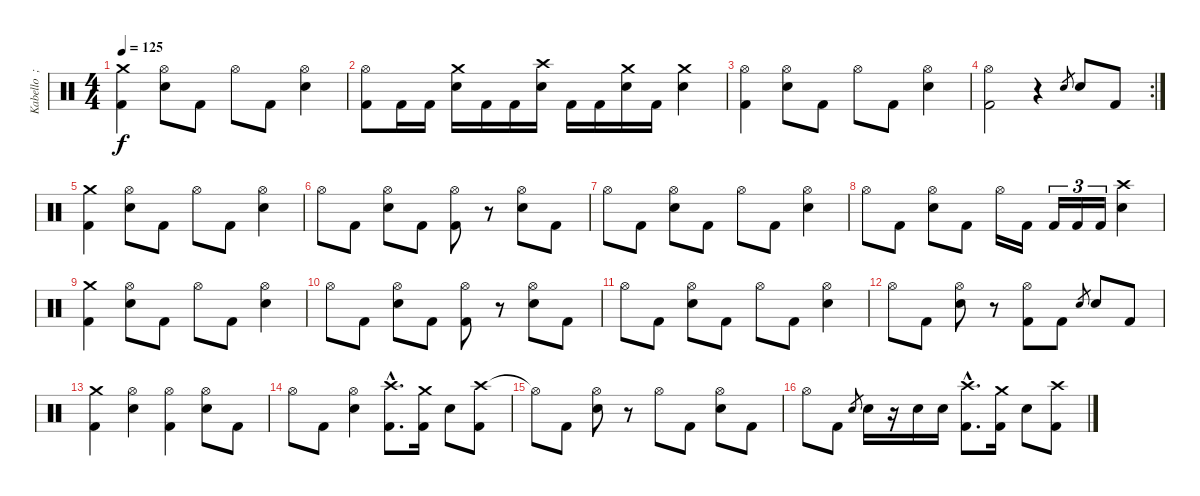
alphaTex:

\track ("Kabello  ;-)" "Kabello  ;") {instrument percussion}
\staff {score}
\articulation defaults
\ts (4 4)
\tempo 125
\clef neutral
\ks c
("Crash medium (hit)" "Kick (hit) 2").4{dy f} ("Hi-Hat (open)" "Electric Snare (hit)").8 "Kick (hit) 2".8 "Hi-Hat (open)".8 "Kick (hit) 2".8 ("Hi-Hat (open)" "Electric Snare (hit)").4 |
("Hi-Hat (open)" "Kick (hit) 2").8 "Kick (hit) 2".16 "Kick (hit) 2".16 ("Crash medium (hit)" "Electric Snare (hit)").16 "Kick (hit) 2".16 "Kick (hit) 2".16 ("Crash high (hit)" "Electric Snare (hit)").16 "Kick (hit) 2".16 "Kick (hit) 2".16 ("Crash medium (hit)" "Electric Snare (hit)").16 "Kick (hit) 2".16 ("Crash medium (hit)" "Electric Snare (hit)").4 |
("Hi-Hat (open)" "Kick (hit) 2").4 ("Hi-Hat (open)" "Electric Snare (hit)").8 "Kick (hit) 2".8 "Hi-Hat (open)".8 "Kick (hit) 2".8 ("Hi-Hat (open)" "Electric Snare (hit)").4 |
\rc 2
("Hi-Hat (open)" "Kick (hit) 2").2 r.4 "Electric Snare (hit)".8{gr} "Electric Snare (hit)".8 "Kick (hit) 2".8 |
("Crash medium (hit)" "Kick (hit) 2").4 ("Hi-Hat (open)" "Electric Snare (hit)").8 "Kick (hit) 2".8 "Hi-Hat (open)".8 "Kick (hit) 2".8 ("Hi-Hat (open)" "Electric Snare (hit)").4 |
"Hi-Hat (open)".8 "Kick (hit) 2".8 ("Hi-Hat (open)" "Electric Snare (hit)").8 "Kick (hit) 2".8 ("Hi-Hat (open)" "Kick (hit) 2").8 r.8 ("Hi-Hat (open)" "Electric Snare (hit)").8 "Kick (hit) 2".8 |
"Hi-Hat (open)".8 "Kick (hit) 2".8 ("Hi-Hat (open)" "Electric Snare (hit)").8 "Kick (hit) 2".8 "Hi-Hat (open)".8 "Kick (hit) 2".8 ("Hi-Hat (open)" "Electric Snare (hit)").4 |
"Hi-Hat (open)".8 "Kick (hit) 2".8 ("Hi-Hat (open)" "Electric Snare (hit)").8 "Kick (hit) 2".8 "Hi-Hat (open)".16 "Kick (hit) 2".16 "Kick (hit) 2".16{tu (3 2)} "Kick (hit) 2".16{tu (3 2)} "Kick (hit) 2".16{tu (3 2)} ("Crash high (hit)" "Electric Snare (hit)").4 |
("Crash medium (hit)" "Kick (hit) 2").4 ("Hi-Hat (open)" "Electric Snare (hit)").8 "Kick (hit) 2".8 "Hi-Hat (open)".8 "Kick (hit) 2".8 ("Hi-Hat (open)" "Electric Snare (hit)").4 |
"Hi-Hat (open)".8 "Kick (hit) 2".8 ("Hi-Hat (open)" "Electric Snare (hit)").8 "Kick (hit) 2".8 ("Hi-Hat (open)" "Kick (hit) 2").8 r.8 ("Hi-Hat (open)" "Electric Snare (hit)").8 "Kick (hit) 2".8 |
"Hi-Hat (open)".8 "Kick (hit) 2".8 ("Hi-Hat (open)" "Electric Snare (hit)").8 "Kick (hit) 2".8 "Hi-Hat (open)".8 "Kick (hit) 2".8 ("Hi-Hat (open)" "Electric Snare (hit)").4 |
"Hi-Hat (open)".8 "Kick (hit) 2".8 ("Hi-Hat (open)" "Electric Snare (hit)").8 r.8 ("Hi-Hat (open)" "Kick (hit) 2").8 "Kick (hit) 2".8 "Electric Snare (hit)".8{gr} "Electric Snare (hit)".8 "Kick (hit) 2".8 |
("Crash medium (hit)" "Kick (hit) 2").4 ("Hi-Hat (open)" "Electric Snare (hit)").4 ("Hi-Hat (open)" "Kick (hit) 2").4 ("Hi-Hat (open)" "Electric Snare (hit)").8 "Kick (hit) 2".8 |
"Hi-Hat (open)".8 "Kick (hit) 2".8 ("Hi-Hat (open)" "Electric Snare (hit)").4 ("Crash high (hit)"{hac} "Kick (hit) 2"{hac}).8{d} ("Crash medium (hit)" "Kick (hit) 2").16 "Electric Snare (hit)".8 ("Crash high (hit)" "Kick (hit) 2").8 |
"Hi-Hat (open)"{t}.8 "Kick (hit) 2".8 ("Hi-Hat (open)" "Electric Snare (hit)").8 r.8 "Hi-Hat (open)".8 "Kick (hit) 2".8 ("Hi-Hat (open)" "Electric Snare (hit)").8 "Kick (hit) 2".8 |
"Hi-Hat (open)".8 "Kick (hit) 2".8 "Electric Snare (hit)".8{gr} "Electric Snare (hit)".16 r.16 "Electric Snare (hit)".16 "Electric Snare (hit)".16 ("Crash high (hit)"{hac} "Kick (hit) 2"{hac}).8{d} ("Crash medium (hit)" "Kick (hit) 2").16 "Electric Snare (hit)".8 ("Crash high (hit)" "Kick (hit) 2").8
